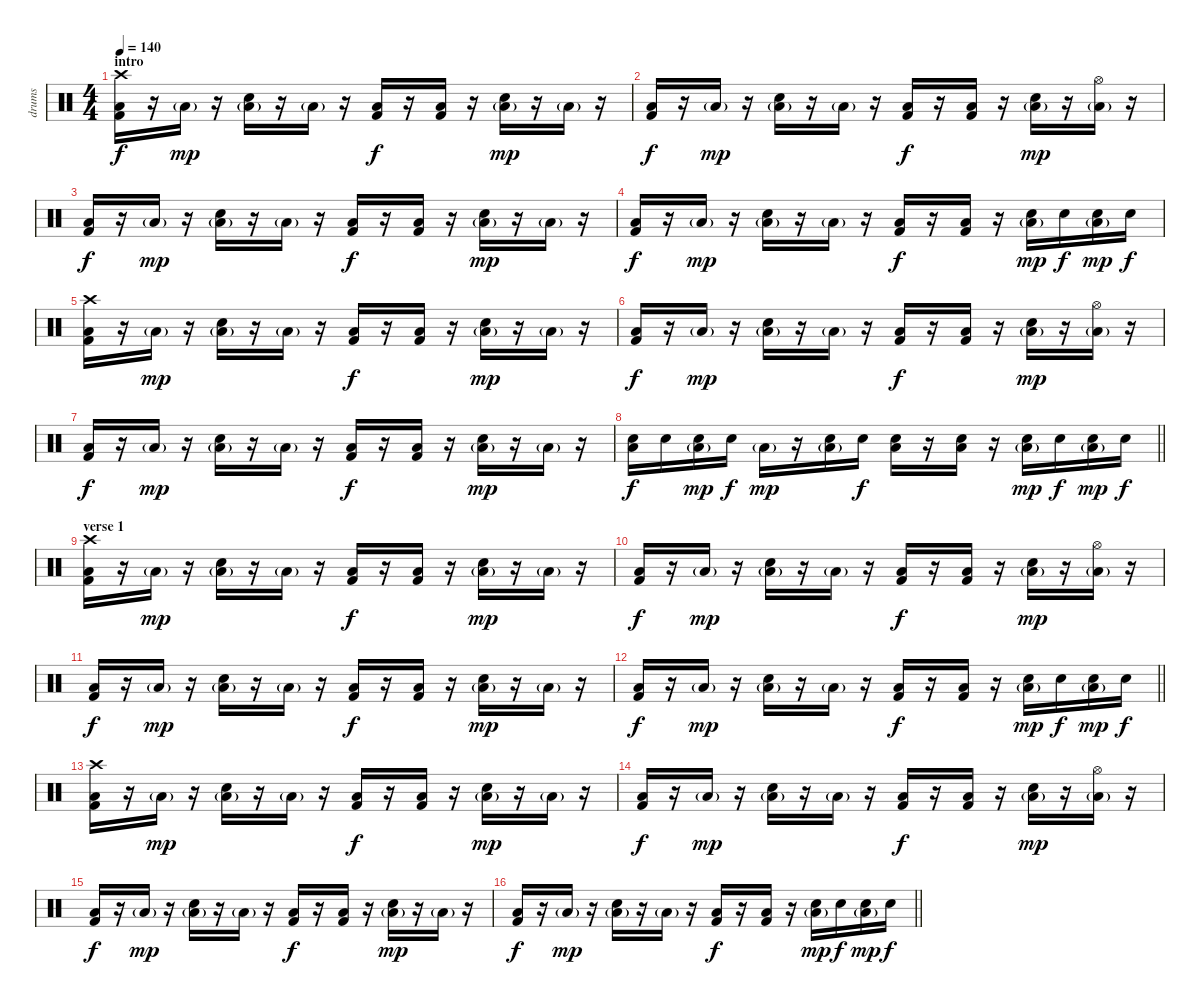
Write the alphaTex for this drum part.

\track ("drums" "drums") {instrument percussion}
\staff {score}
\articulation defaults
\ts (4 4)
\section ("" "intro")
\tempo 140
\clef neutral
\ks c
("Kick (hit) 2" "Low Floor Tom (hit)" "Crash high (hit)").16{dy f} r.16 "Low Floor Tom (hit)"{g}.16{dy mp} r.16 ("Electric Snare (hit)" "Low Floor Tom (hit)"{g}).16 r.16 "Low Floor Tom (hit)"{g}.16 r.16 ("Kick (hit) 2" "Low Floor Tom (hit)").16{dy f} r.16 ("Kick (hit) 2" "Low Floor Tom (hit)").16 r.16 ("Electric Snare (hit)" "Low Floor Tom (hit)"{g}).16{dy mp} r.16 "Low Floor Tom (hit)"{g}.16 r.16 |
("Kick (hit) 2" "Low Floor Tom (hit)").16{dy f} r.16 "Low Floor Tom (hit)"{g}.16{dy mp} r.16 ("Electric Snare (hit)" "Low Floor Tom (hit)"{g}).16 r.16 "Low Floor Tom (hit)"{g}.16 r.16 ("Kick (hit) 2" "Low Floor Tom (hit)").16{dy f} r.16 ("Kick (hit) 2" "Low Floor Tom (hit)").16 r.16 ("Electric Snare (hit)" "Low Floor Tom (hit)"{g}).16{dy mp} r.16 ("Hi-Hat (open)" "Low Floor Tom (hit)"{g}).16 r.16 |
("Kick (hit) 2" "Low Floor Tom (hit)").16{dy f} r.16 "Low Floor Tom (hit)"{g}.16{dy mp} r.16 ("Electric Snare (hit)" "Low Floor Tom (hit)"{g}).16 r.16 "Low Floor Tom (hit)"{g}.16 r.16 ("Kick (hit) 2" "Low Floor Tom (hit)").16{dy f} r.16 ("Kick (hit) 2" "Low Floor Tom (hit)").16 r.16 ("Electric Snare (hit)" "Low Floor Tom (hit)"{g}).16{dy mp} r.16 "Low Floor Tom (hit)"{g}.16 r.16 |
("Kick (hit) 2" "Low Floor Tom (hit)").16{dy f} r.16 "Low Floor Tom (hit)"{g}.16{dy mp} r.16 ("Electric Snare (hit)" "Low Floor Tom (hit)"{g}).16 r.16 "Low Floor Tom (hit)"{g}.16 r.16 ("Kick (hit) 2" "Low Floor Tom (hit)").16{dy f} r.16 ("Kick (hit) 2" "Low Floor Tom (hit)").16 r.16 ("Electric Snare (hit)" "Low Floor Tom (hit)"{g}).16{dy mp} "Electric Snare (hit)".16{dy f} ("Electric Snare (hit)" "Low Floor Tom (hit)"{g}).16{dy mp} "Electric Snare (hit)".16{dy f} |
("Kick (hit) 2" "Low Floor Tom (hit)" "Crash high (hit)").16 r.16 "Low Floor Tom (hit)"{g}.16{dy mp} r.16 ("Electric Snare (hit)" "Low Floor Tom (hit)"{g}).16 r.16 "Low Floor Tom (hit)"{g}.16 r.16 ("Kick (hit) 2" "Low Floor Tom (hit)").16{dy f} r.16 ("Kick (hit) 2" "Low Floor Tom (hit)").16 r.16 ("Electric Snare (hit)" "Low Floor Tom (hit)"{g}).16{dy mp} r.16 "Low Floor Tom (hit)"{g}.16 r.16 |
("Kick (hit) 2" "Low Floor Tom (hit)").16{dy f} r.16 "Low Floor Tom (hit)"{g}.16{dy mp} r.16 ("Electric Snare (hit)" "Low Floor Tom (hit)"{g}).16 r.16 "Low Floor Tom (hit)"{g}.16 r.16 ("Kick (hit) 2" "Low Floor Tom (hit)").16{dy f} r.16 ("Kick (hit) 2" "Low Floor Tom (hit)").16 r.16 ("Electric Snare (hit)" "Low Floor Tom (hit)"{g}).16{dy mp} r.16 ("Hi-Hat (open)" "Low Floor Tom (hit)"{g}).16 r.16 |
("Kick (hit) 2" "Low Floor Tom (hit)").16{dy f} r.16 "Low Floor Tom (hit)"{g}.16{dy mp} r.16 ("Electric Snare (hit)" "Low Floor Tom (hit)"{g}).16 r.16 "Low Floor Tom (hit)"{g}.16 r.16 ("Kick (hit) 2" "Low Floor Tom (hit)").16{dy f} r.16 ("Kick (hit) 2" "Low Floor Tom (hit)").16 r.16 ("Electric Snare (hit)" "Low Floor Tom (hit)"{g}).16{dy mp} r.16 "Low Floor Tom (hit)"{g}.16 r.16 |
\barLineRight lightlight
("Electric Snare (hit)" "Low Floor Tom (hit)").16{dy f} "Electric Snare (hit)".16 ("Electric Snare (hit)" "Low Floor Tom (hit)"{g}).16{dy mp} "Electric Snare (hit)".16{dy f} "Low Floor Tom (hit)"{g}.16{dy mp} r.16 ("Electric Snare (hit)" "Low Floor Tom (hit)"{g}).16 "Electric Snare (hit)".16{dy f} ("Electric Snare (hit)" "Low Floor Tom (hit)").16 r.16 ("Electric Snare (hit)" "Low Floor Tom (hit)").16 r.16 ("Electric Snare (hit)" "Low Floor Tom (hit)"{g}).16{dy mp} "Electric Snare (hit)".16{dy f} ("Electric Snare (hit)" "Low Floor Tom (hit)"{g}).16{dy mp} "Electric Snare (hit)".16{dy f} |
\section ("" "verse 1")
("Kick (hit) 2" "Low Floor Tom (hit)" "Crash high (hit)").16 r.16 "Low Floor Tom (hit)"{g}.16{dy mp} r.16 ("Electric Snare (hit)" "Low Floor Tom (hit)"{g}).16 r.16 "Low Floor Tom (hit)"{g}.16 r.16 ("Kick (hit) 2" "Low Floor Tom (hit)").16{dy f} r.16 ("Kick (hit) 2" "Low Floor Tom (hit)").16 r.16 ("Electric Snare (hit)" "Low Floor Tom (hit)"{g}).16{dy mp} r.16 "Low Floor Tom (hit)"{g}.16 r.16 |
("Kick (hit) 2" "Low Floor Tom (hit)").16{dy f} r.16 "Low Floor Tom (hit)"{g}.16{dy mp} r.16 ("Electric Snare (hit)" "Low Floor Tom (hit)"{g}).16 r.16 "Low Floor Tom (hit)"{g}.16 r.16 ("Kick (hit) 2" "Low Floor Tom (hit)").16{dy f} r.16 ("Kick (hit) 2" "Low Floor Tom (hit)").16 r.16 ("Electric Snare (hit)" "Low Floor Tom (hit)"{g}).16{dy mp} r.16 ("Hi-Hat (open)" "Low Floor Tom (hit)"{g}).16 r.16 |
("Kick (hit) 2" "Low Floor Tom (hit)").16{dy f} r.16 "Low Floor Tom (hit)"{g}.16{dy mp} r.16 ("Electric Snare (hit)" "Low Floor Tom (hit)"{g}).16 r.16 "Low Floor Tom (hit)"{g}.16 r.16 ("Kick (hit) 2" "Low Floor Tom (hit)").16{dy f} r.16 ("Kick (hit) 2" "Low Floor Tom (hit)").16 r.16 ("Electric Snare (hit)" "Low Floor Tom (hit)"{g}).16{dy mp} r.16 "Low Floor Tom (hit)"{g}.16 r.16 |
\barLineRight lightlight
("Kick (hit) 2" "Low Floor Tom (hit)").16{dy f} r.16 "Low Floor Tom (hit)"{g}.16{dy mp} r.16 ("Electric Snare (hit)" "Low Floor Tom (hit)"{g}).16 r.16 "Low Floor Tom (hit)"{g}.16 r.16 ("Kick (hit) 2" "Low Floor Tom (hit)").16{dy f} r.16 ("Kick (hit) 2" "Low Floor Tom (hit)").16 r.16 ("Electric Snare (hit)" "Low Floor Tom (hit)"{g}).16{dy mp} "Electric Snare (hit)".16{dy f} ("Electric Snare (hit)" "Low Floor Tom (hit)"{g}).16{dy mp} "Electric Snare (hit)".16{dy f} |
("Kick (hit) 2" "Low Floor Tom (hit)" "Crash high (hit)").16 r.16 "Low Floor Tom (hit)"{g}.16{dy mp} r.16 ("Electric Snare (hit)" "Low Floor Tom (hit)"{g}).16 r.16 "Low Floor Tom (hit)"{g}.16 r.16 ("Kick (hit) 2" "Low Floor Tom (hit)").16{dy f} r.16 ("Kick (hit) 2" "Low Floor Tom (hit)").16 r.16 ("Electric Snare (hit)" "Low Floor Tom (hit)"{g}).16{dy mp} r.16 "Low Floor Tom (hit)"{g}.16 r.16 |
("Kick (hit) 2" "Low Floor Tom (hit)").16{dy f} r.16 "Low Floor Tom (hit)"{g}.16{dy mp} r.16 ("Electric Snare (hit)" "Low Floor Tom (hit)"{g}).16 r.16 "Low Floor Tom (hit)"{g}.16 r.16 ("Kick (hit) 2" "Low Floor Tom (hit)").16{dy f} r.16 ("Kick (hit) 2" "Low Floor Tom (hit)").16 r.16 ("Electric Snare (hit)" "Low Floor Tom (hit)"{g}).16{dy mp} r.16 ("Hi-Hat (open)" "Low Floor Tom (hit)"{g}).16 r.16 |
("Kick (hit) 2" "Low Floor Tom (hit)").16{dy f} r.16 "Low Floor Tom (hit)"{g}.16{dy mp} r.16 ("Electric Snare (hit)" "Low Floor Tom (hit)"{g}).16 r.16 "Low Floor Tom (hit)"{g}.16 r.16 ("Kick (hit) 2" "Low Floor Tom (hit)").16{dy f} r.16 ("Kick (hit) 2" "Low Floor Tom (hit)").16 r.16 ("Electric Snare (hit)" "Low Floor Tom (hit)"{g}).16{dy mp} r.16 "Low Floor Tom (hit)"{g}.16 r.16 |
\barLineRight lightlight
("Kick (hit) 2" "Low Floor Tom (hit)").16{dy f} r.16 "Low Floor Tom (hit)"{g}.16{dy mp} r.16 ("Electric Snare (hit)" "Low Floor Tom (hit)"{g}).16 r.16 "Low Floor Tom (hit)"{g}.16 r.16 ("Kick (hit) 2" "Low Floor Tom (hit)").16{dy f} r.16 ("Kick (hit) 2" "Low Floor Tom (hit)").16 r.16 ("Electric Snare (hit)" "Low Floor Tom (hit)"{g}).16{dy mp} "Electric Snare (hit)".16{dy f} ("Electric Snare (hit)" "Low Floor Tom (hit)"{g}).16{dy mp} "Electric Snare (hit)".16{dy f}
